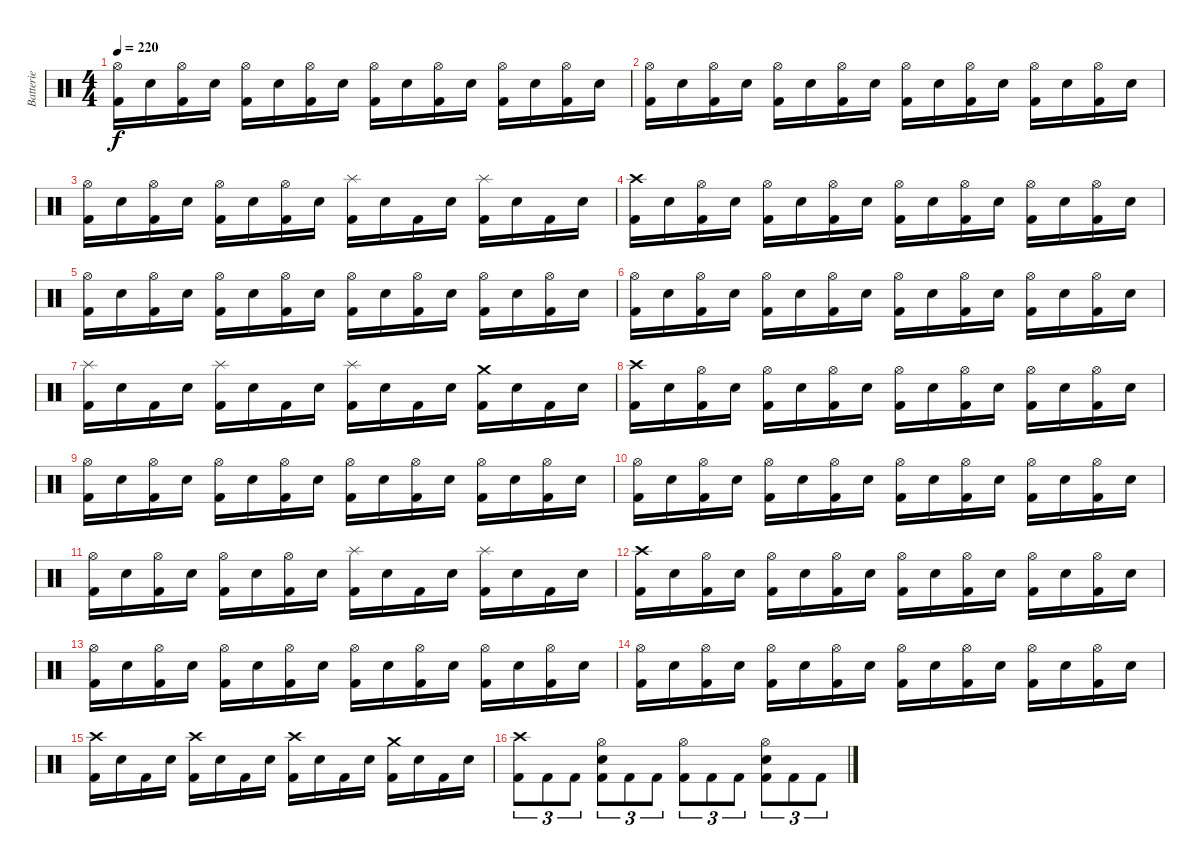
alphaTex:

\track ("Batterie" "Batterie") {instrument percussion}
\staff {score}
\articulation defaults
\ts (4 4)
\tempo 220
\clef neutral
\ks c
("Hi-Hat (open)" "Kick (hit) 2").16{dy f} "Electric Snare (hit)".16 ("Hi-Hat (open)" "Kick (hit) 2").16 "Electric Snare (hit)".16 ("Hi-Hat (open)" "Kick (hit) 2").16 "Electric Snare (hit)".16 ("Hi-Hat (open)" "Kick (hit) 2").16 "Electric Snare (hit)".16 ("Hi-Hat (open)" "Kick (hit) 2").16 "Electric Snare (hit)".16 ("Hi-Hat (open)" "Kick (hit) 2").16 "Electric Snare (hit)".16 ("Hi-Hat (open)" "Kick (hit) 2").16 "Electric Snare (hit)".16 ("Hi-Hat (open)" "Kick (hit) 2").16 "Electric Snare (hit)".16 |
("Hi-Hat (open)" "Kick (hit) 2").16 "Electric Snare (hit)".16 ("Hi-Hat (open)" "Kick (hit) 2").16 "Electric Snare (hit)".16 ("Hi-Hat (open)" "Kick (hit) 2").16 "Electric Snare (hit)".16 ("Hi-Hat (open)" "Kick (hit) 2").16 "Electric Snare (hit)".16 ("Hi-Hat (open)" "Kick (hit) 2").16 "Electric Snare (hit)".16 ("Hi-Hat (open)" "Kick (hit) 2").16 "Electric Snare (hit)".16 ("Hi-Hat (open)" "Kick (hit) 2").16 "Electric Snare (hit)".16 ("Hi-Hat (open)" "Kick (hit) 2").16 "Electric Snare (hit)".16 |
("Hi-Hat (open)" "Kick (hit) 2").16 "Electric Snare (hit)".16 ("Hi-Hat (open)" "Kick (hit) 2").16 "Electric Snare (hit)".16 ("Hi-Hat (open)" "Kick (hit) 2").16 "Electric Snare (hit)".16 ("Hi-Hat (open)" "Kick (hit) 2").16 "Electric Snare (hit)".16 ("Splash (hit)" "Kick (hit) 2").16 "Electric Snare (hit)".16 "Kick (hit) 2".16 "Electric Snare (hit)".16 ("Splash (hit)" "Kick (hit) 2").16 "Electric Snare (hit)".16 "Kick (hit) 2".16 "Electric Snare (hit)".16 |
("Crash high (hit)" "Kick (hit) 2").16 "Electric Snare (hit)".16 ("Hi-Hat (open)" "Kick (hit) 2").16 "Electric Snare (hit)".16 ("Hi-Hat (open)" "Kick (hit) 2").16 "Electric Snare (hit)".16 ("Hi-Hat (open)" "Kick (hit) 2").16 "Electric Snare (hit)".16 ("Hi-Hat (open)" "Kick (hit) 2").16 "Electric Snare (hit)".16 ("Hi-Hat (open)" "Kick (hit) 2").16 "Electric Snare (hit)".16 ("Hi-Hat (open)" "Kick (hit) 2").16 "Electric Snare (hit)".16 ("Hi-Hat (open)" "Kick (hit) 2").16 "Electric Snare (hit)".16 |
("Hi-Hat (open)" "Kick (hit) 2").16 "Electric Snare (hit)".16 ("Hi-Hat (open)" "Kick (hit) 2").16 "Electric Snare (hit)".16 ("Hi-Hat (open)" "Kick (hit) 2").16 "Electric Snare (hit)".16 ("Hi-Hat (open)" "Kick (hit) 2").16 "Electric Snare (hit)".16 ("Hi-Hat (open)" "Kick (hit) 2").16 "Electric Snare (hit)".16 ("Hi-Hat (open)" "Kick (hit) 2").16 "Electric Snare (hit)".16 ("Hi-Hat (open)" "Kick (hit) 2").16 "Electric Snare (hit)".16 ("Hi-Hat (open)" "Kick (hit) 2").16 "Electric Snare (hit)".16 |
("Hi-Hat (open)" "Kick (hit) 2").16 "Electric Snare (hit)".16 ("Hi-Hat (open)" "Kick (hit) 2").16 "Electric Snare (hit)".16 ("Hi-Hat (open)" "Kick (hit) 2").16 "Electric Snare (hit)".16 ("Hi-Hat (open)" "Kick (hit) 2").16 "Electric Snare (hit)".16 ("Hi-Hat (open)" "Kick (hit) 2").16 "Electric Snare (hit)".16 ("Hi-Hat (open)" "Kick (hit) 2").16 "Electric Snare (hit)".16 ("Hi-Hat (open)" "Kick (hit) 2").16 "Electric Snare (hit)".16 ("Hi-Hat (open)" "Kick (hit) 2").16 "Electric Snare (hit)".16 |
("Splash (hit)" "Kick (hit) 2").16 "Electric Snare (hit)".16 "Kick (hit) 2".16 "Electric Snare (hit)".16 ("Splash (hit)" "Kick (hit) 2").16 "Electric Snare (hit)".16 "Kick (hit) 2".16 "Electric Snare (hit)".16 ("Splash (hit)" "Kick (hit) 2").16 "Electric Snare (hit)".16 "Kick (hit) 2".16 "Electric Snare (hit)".16 ("Crash medium (hit)" "Kick (hit) 2").16 "Electric Snare (hit)".16 "Kick (hit) 2".16 "Electric Snare (hit)".16 |
("Crash high (hit)" "Kick (hit) 2").16 "Electric Snare (hit)".16 ("Hi-Hat (open)" "Kick (hit) 2").16 "Electric Snare (hit)".16 ("Hi-Hat (open)" "Kick (hit) 2").16 "Electric Snare (hit)".16 ("Hi-Hat (open)" "Kick (hit) 2").16 "Electric Snare (hit)".16 ("Hi-Hat (open)" "Kick (hit) 2").16 "Electric Snare (hit)".16 ("Hi-Hat (open)" "Kick (hit) 2").16 "Electric Snare (hit)".16 ("Hi-Hat (open)" "Kick (hit) 2").16 "Electric Snare (hit)".16 ("Hi-Hat (open)" "Kick (hit) 2").16 "Electric Snare (hit)".16 |
("Hi-Hat (open)" "Kick (hit) 2").16 "Electric Snare (hit)".16 ("Hi-Hat (open)" "Kick (hit) 2").16 "Electric Snare (hit)".16 ("Hi-Hat (open)" "Kick (hit) 2").16 "Electric Snare (hit)".16 ("Hi-Hat (open)" "Kick (hit) 2").16 "Electric Snare (hit)".16 ("Hi-Hat (open)" "Kick (hit) 2").16 "Electric Snare (hit)".16 ("Hi-Hat (open)" "Kick (hit) 2").16 "Electric Snare (hit)".16 ("Hi-Hat (open)" "Kick (hit) 2").16 "Electric Snare (hit)".16 ("Hi-Hat (open)" "Kick (hit) 2").16 "Electric Snare (hit)".16 |
("Hi-Hat (open)" "Kick (hit) 2").16 "Electric Snare (hit)".16 ("Hi-Hat (open)" "Kick (hit) 2").16 "Electric Snare (hit)".16 ("Hi-Hat (open)" "Kick (hit) 2").16 "Electric Snare (hit)".16 ("Hi-Hat (open)" "Kick (hit) 2").16 "Electric Snare (hit)".16 ("Hi-Hat (open)" "Kick (hit) 2").16 "Electric Snare (hit)".16 ("Hi-Hat (open)" "Kick (hit) 2").16 "Electric Snare (hit)".16 ("Hi-Hat (open)" "Kick (hit) 2").16 "Electric Snare (hit)".16 ("Hi-Hat (open)" "Kick (hit) 2").16 "Electric Snare (hit)".16 |
("Hi-Hat (open)" "Kick (hit) 2").16 "Electric Snare (hit)".16 ("Hi-Hat (open)" "Kick (hit) 2").16 "Electric Snare (hit)".16 ("Hi-Hat (open)" "Kick (hit) 2").16 "Electric Snare (hit)".16 ("Hi-Hat (open)" "Kick (hit) 2").16 "Electric Snare (hit)".16 ("Splash (hit)" "Kick (hit) 2").16 "Electric Snare (hit)".16 "Kick (hit) 2".16 "Electric Snare (hit)".16 ("Splash (hit)" "Kick (hit) 2").16 "Electric Snare (hit)".16 "Kick (hit) 2".16 "Electric Snare (hit)".16 |
("Crash high (hit)" "Kick (hit) 2").16 "Electric Snare (hit)".16 ("Hi-Hat (open)" "Kick (hit) 2").16 "Electric Snare (hit)".16 ("Hi-Hat (open)" "Kick (hit) 2").16 "Electric Snare (hit)".16 ("Hi-Hat (open)" "Kick (hit) 2").16 "Electric Snare (hit)".16 ("Hi-Hat (open)" "Kick (hit) 2").16 "Electric Snare (hit)".16 ("Hi-Hat (open)" "Kick (hit) 2").16 "Electric Snare (hit)".16 ("Hi-Hat (open)" "Kick (hit) 2").16 "Electric Snare (hit)".16 ("Hi-Hat (open)" "Kick (hit) 2").16 "Electric Snare (hit)".16 |
("Hi-Hat (open)" "Kick (hit) 2").16 "Electric Snare (hit)".16 ("Hi-Hat (open)" "Kick (hit) 2").16 "Electric Snare (hit)".16 ("Hi-Hat (open)" "Kick (hit) 2").16 "Electric Snare (hit)".16 ("Hi-Hat (open)" "Kick (hit) 2").16 "Electric Snare (hit)".16 ("Hi-Hat (open)" "Kick (hit) 2").16 "Electric Snare (hit)".16 ("Hi-Hat (open)" "Kick (hit) 2").16 "Electric Snare (hit)".16 ("Hi-Hat (open)" "Kick (hit) 2").16 "Electric Snare (hit)".16 ("Hi-Hat (open)" "Kick (hit) 2").16 "Electric Snare (hit)".16 |
("Hi-Hat (open)" "Kick (hit) 2").16 "Electric Snare (hit)".16 ("Hi-Hat (open)" "Kick (hit) 2").16 "Electric Snare (hit)".16 ("Hi-Hat (open)" "Kick (hit) 2").16 "Electric Snare (hit)".16 ("Hi-Hat (open)" "Kick (hit) 2").16 "Electric Snare (hit)".16 ("Hi-Hat (open)" "Kick (hit) 2").16 "Electric Snare (hit)".16 ("Hi-Hat (open)" "Kick (hit) 2").16 "Electric Snare (hit)".16 ("Hi-Hat (open)" "Kick (hit) 2").16 "Electric Snare (hit)".16 ("Hi-Hat (open)" "Kick (hit) 2").16 "Electric Snare (hit)".16 |
("Crash high (hit)" "Kick (hit) 2").16 "Electric Snare (hit)".16 "Kick (hit) 2".16 "Electric Snare (hit)".16 ("Crash high (hit)" "Kick (hit) 2").16 "Electric Snare (hit)".16 "Kick (hit) 2".16 "Electric Snare (hit)".16 ("Crash high (hit)" "Kick (hit) 2").16 "Electric Snare (hit)".16 "Kick (hit) 2".16 "Electric Snare (hit)".16 ("Crash medium (hit)" "Kick (hit) 2").16 "Electric Snare (hit)".16 "Kick (hit) 2".16 "Electric Snare (hit)".16 |
("Crash high (hit)" "Kick (hit) 2").8{tu (3 2)} "Kick (hit) 2".8{tu (3 2)} "Kick (hit) 2".8{tu (3 2)} ("Hi-Hat (open)" "Electric Snare (hit)" "Kick (hit) 2").8{tu (3 2)} "Kick (hit) 2".8{tu (3 2)} "Kick (hit) 2".8{tu (3 2)} ("Hi-Hat (open)" "Kick (hit) 2").8{tu (3 2)} "Kick (hit) 2".8{tu (3 2)} "Kick (hit) 2".8{tu (3 2)} ("Hi-Hat (open)" "Electric Snare (hit)" "Kick (hit) 2").8{tu (3 2)} "Kick (hit) 2".8{tu (3 2)} "Kick (hit) 2".8{tu (3 2)}
